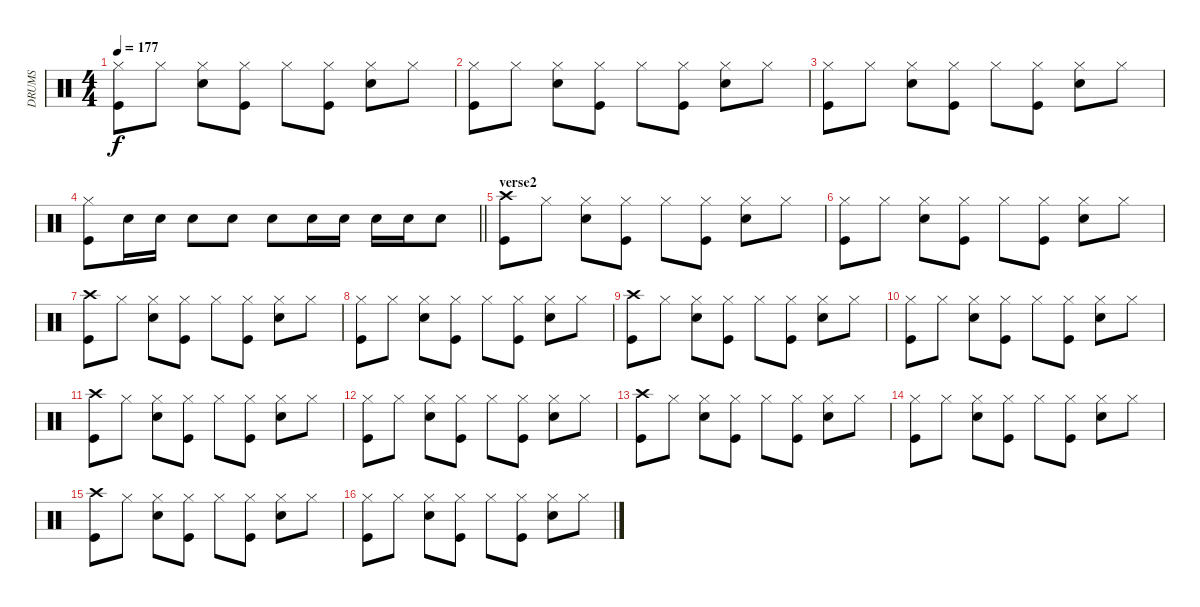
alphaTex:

\track ("DRUMS" "DRUMS") {instrument percussion}
\staff {score}
\articulation defaults
\ts (4 4)
\tempo 177
\clef neutral
\ks c
("Hi-Hat (closed)" "Kick (hit)").8{dy f} "Hi-Hat (closed)".8 ("Hi-Hat (closed)" "Snare (hit) 2").8 ("Hi-Hat (closed)" "Kick (hit)").8 "Hi-Hat (closed)".8 ("Hi-Hat (closed)" "Kick (hit)").8 ("Hi-Hat (closed)" "Snare (hit) 2").8 "Hi-Hat (closed)".8 |
("Hi-Hat (closed)" "Kick (hit)").8 "Hi-Hat (closed)".8 ("Hi-Hat (closed)" "Snare (hit) 2").8 ("Hi-Hat (closed)" "Kick (hit)").8 "Hi-Hat (closed)".8 ("Hi-Hat (closed)" "Kick (hit)").8 ("Hi-Hat (closed)" "Snare (hit) 2").8 "Hi-Hat (closed)".8 |
("Hi-Hat (closed)" "Kick (hit)").8 "Hi-Hat (closed)".8 ("Hi-Hat (closed)" "Snare (hit) 2").8 ("Hi-Hat (closed)" "Kick (hit)").8 "Hi-Hat (closed)".8 ("Hi-Hat (closed)" "Kick (hit)").8 ("Hi-Hat (closed)" "Snare (hit) 2").8 "Hi-Hat (closed)".8 |
\barLineRight lightlight
("Hi-Hat (closed)" "Kick (hit)").8 "Snare (hit) 2".16 "Snare (hit) 2".16 "Snare (hit) 2".8 "Snare (hit) 2".8 "Snare (hit) 2".8 "Snare (hit) 2".16 "Snare (hit) 2".16 "Snare (hit) 2".16 "Snare (hit) 2".16 "Snare (hit) 2".8 |
\section ("" "verse2")
("Crash high (hit)" "Kick (hit)").8 "Hi-Hat (closed)".8 ("Hi-Hat (closed)" "Snare (hit) 2").8 ("Hi-Hat (closed)" "Kick (hit)").8 "Hi-Hat (closed)".8 ("Hi-Hat (closed)" "Kick (hit)").8 ("Hi-Hat (closed)" "Snare (hit) 2").8 "Hi-Hat (closed)".8 |
("Hi-Hat (closed)" "Kick (hit)").8 "Hi-Hat (closed)".8 ("Hi-Hat (closed)" "Snare (hit) 2").8 ("Hi-Hat (closed)" "Kick (hit)").8 "Hi-Hat (closed)".8 ("Hi-Hat (closed)" "Kick (hit)").8 ("Hi-Hat (closed)" "Snare (hit) 2").8 "Hi-Hat (closed)".8 |
("Crash high (hit)" "Kick (hit)").8 "Hi-Hat (closed)".8 ("Hi-Hat (closed)" "Snare (hit) 2").8 ("Hi-Hat (closed)" "Kick (hit)").8 "Hi-Hat (closed)".8 ("Hi-Hat (closed)" "Kick (hit)").8 ("Hi-Hat (closed)" "Snare (hit) 2").8 "Hi-Hat (closed)".8 |
("Hi-Hat (closed)" "Kick (hit)").8 "Hi-Hat (closed)".8 ("Hi-Hat (closed)" "Snare (hit) 2").8 ("Hi-Hat (closed)" "Kick (hit)").8 "Hi-Hat (closed)".8 ("Hi-Hat (closed)" "Kick (hit)").8 ("Hi-Hat (closed)" "Snare (hit) 2").8 "Hi-Hat (closed)".8 |
("Crash high (hit)" "Kick (hit)").8 "Hi-Hat (closed)".8 ("Hi-Hat (closed)" "Snare (hit) 2").8 ("Hi-Hat (closed)" "Kick (hit)").8 "Hi-Hat (closed)".8 ("Hi-Hat (closed)" "Kick (hit)").8 ("Hi-Hat (closed)" "Snare (hit) 2").8 "Hi-Hat (closed)".8 |
("Hi-Hat (closed)" "Kick (hit)").8 "Hi-Hat (closed)".8 ("Hi-Hat (closed)" "Snare (hit) 2").8 ("Hi-Hat (closed)" "Kick (hit)").8 "Hi-Hat (closed)".8 ("Hi-Hat (closed)" "Kick (hit)").8 ("Hi-Hat (closed)" "Snare (hit) 2").8 "Hi-Hat (closed)".8 |
("Crash high (hit)" "Kick (hit)").8 "Hi-Hat (closed)".8 ("Hi-Hat (closed)" "Snare (hit) 2").8 ("Hi-Hat (closed)" "Kick (hit)").8 "Hi-Hat (closed)".8 ("Hi-Hat (closed)" "Kick (hit)").8 ("Hi-Hat (closed)" "Snare (hit) 2").8 "Hi-Hat (closed)".8 |
("Hi-Hat (closed)" "Kick (hit)").8 "Hi-Hat (closed)".8 ("Hi-Hat (closed)" "Snare (hit) 2").8 ("Hi-Hat (closed)" "Kick (hit)").8 "Hi-Hat (closed)".8 ("Hi-Hat (closed)" "Kick (hit)").8 ("Hi-Hat (closed)" "Snare (hit) 2").8 "Hi-Hat (closed)".8 |
("Crash high (hit)" "Kick (hit)").8 "Hi-Hat (closed)".8 ("Hi-Hat (closed)" "Snare (hit) 2").8 ("Hi-Hat (closed)" "Kick (hit)").8 "Hi-Hat (closed)".8 ("Hi-Hat (closed)" "Kick (hit)").8 ("Hi-Hat (closed)" "Snare (hit) 2").8 "Hi-Hat (closed)".8 |
("Hi-Hat (closed)" "Kick (hit)").8 "Hi-Hat (closed)".8 ("Hi-Hat (closed)" "Snare (hit) 2").8 ("Hi-Hat (closed)" "Kick (hit)").8 "Hi-Hat (closed)".8 ("Hi-Hat (closed)" "Kick (hit)").8 ("Hi-Hat (closed)" "Snare (hit) 2").8 "Hi-Hat (closed)".8 |
("Crash high (hit)" "Kick (hit)").8 "Hi-Hat (closed)".8 ("Hi-Hat (closed)" "Snare (hit) 2").8 ("Hi-Hat (closed)" "Kick (hit)").8 "Hi-Hat (closed)".8 ("Hi-Hat (closed)" "Kick (hit)").8 ("Hi-Hat (closed)" "Snare (hit) 2").8 "Hi-Hat (closed)".8 |
("Hi-Hat (closed)" "Kick (hit)").8 "Hi-Hat (closed)".8 ("Hi-Hat (closed)" "Snare (hit) 2").8 ("Hi-Hat (closed)" "Kick (hit)").8 "Hi-Hat (closed)".8 ("Hi-Hat (closed)" "Kick (hit)").8 ("Hi-Hat (closed)" "Snare (hit) 2").8 "Hi-Hat (closed)".8
